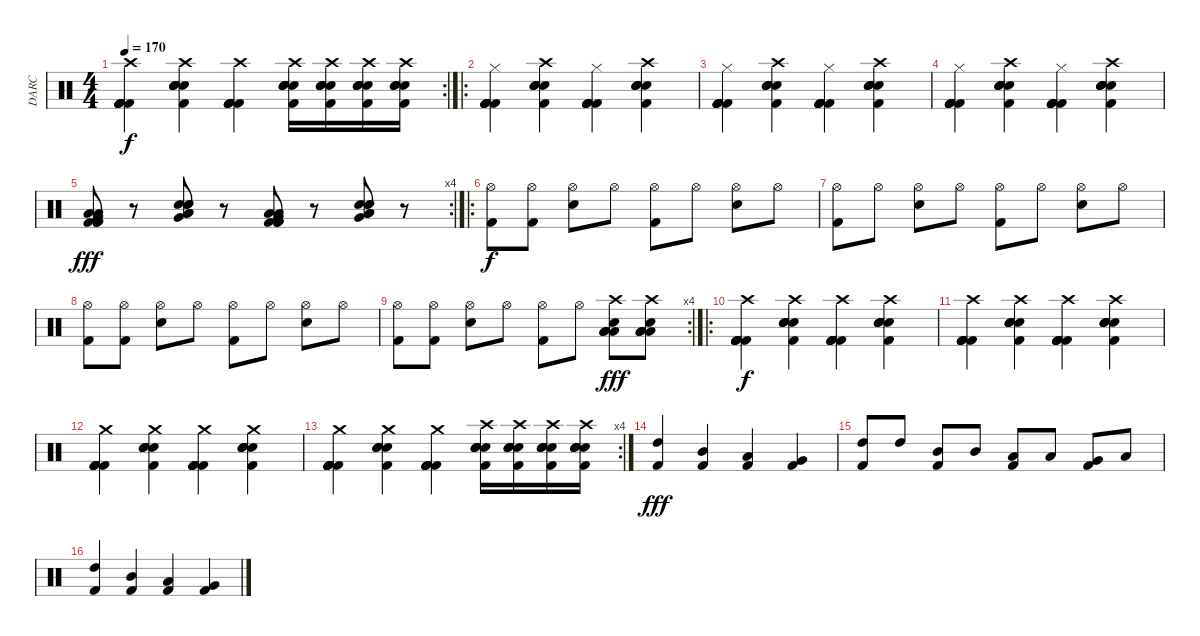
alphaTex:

\track ("DARC" "DARC") {instrument percussion}
\staff {score}
\articulation defaults
\rc 2
\ts (4 4)
\tempo 170
\clef neutral
\ks c
("Crash high (hit)" "Kick (hit) 2" "Kick (hit) 2" "Kick (hit) 2" "Kick (hit) 2" "Kick (hit) 2").4{dy f} ("Crash high (hit)" "Kick (hit) 2" "Electric Snare (hit)" "Electric Snare (hit)" "Electric Snare (hit)" "Electric Snare (hit)").4 ("Crash high (hit)" "Kick (hit) 2" "Kick (hit) 2" "Kick (hit) 2" "Kick (hit) 2" "Kick (hit) 2").4 ("Crash high (hit)" "Kick (hit) 2" "Electric Snare (hit)" "Electric Snare (hit)" "Electric Snare (hit)" "Electric Snare (hit)").16 ("Crash high (hit)" "Kick (hit) 2" "Electric Snare (hit)" "Electric Snare (hit)" "Electric Snare (hit)" "Electric Snare (hit)").16 ("Crash high (hit)" "Kick (hit) 2" "Electric Snare (hit)" "Electric Snare (hit)" "Electric Snare (hit)" "Electric Snare (hit)").16 ("Crash high (hit)" "Kick (hit) 2" "Electric Snare (hit)" "Electric Snare (hit)" "Electric Snare (hit)" "Electric Snare (hit)").16 |
\ro
("Hi-Hat (closed)" "Kick (hit) 2" "Kick (hit) 2" "Kick (hit) 2" "Kick (hit) 2" "Kick (hit) 2").4 ("Crash high (hit)" "Kick (hit) 2" "Electric Snare (hit)" "Electric Snare (hit)" "Electric Snare (hit)" "Electric Snare (hit)").4 ("Hi-Hat (closed)" "Kick (hit) 2" "Kick (hit) 2" "Kick (hit) 2" "Kick (hit) 2" "Kick (hit) 2").4 ("Crash high (hit)" "Kick (hit) 2" "Electric Snare (hit)" "Electric Snare (hit)" "Electric Snare (hit)" "Electric Snare (hit)").4 |
("Hi-Hat (closed)" "Kick (hit) 2" "Kick (hit) 2" "Kick (hit) 2" "Kick (hit) 2" "Kick (hit) 2").4 ("Crash high (hit)" "Kick (hit) 2" "Electric Snare (hit)" "Electric Snare (hit)" "Electric Snare (hit)" "Electric Snare (hit)").4 ("Hi-Hat (closed)" "Kick (hit) 2" "Kick (hit) 2" "Kick (hit) 2" "Kick (hit) 2" "Kick (hit) 2").4 ("Crash high (hit)" "Kick (hit) 2" "Electric Snare (hit)" "Electric Snare (hit)" "Electric Snare (hit)" "Electric Snare (hit)").4 |
("Hi-Hat (closed)" "Kick (hit) 2" "Kick (hit) 2" "Kick (hit) 2" "Kick (hit) 2" "Kick (hit) 2").4 ("Crash high (hit)" "Kick (hit) 2" "Electric Snare (hit)" "Electric Snare (hit)" "Electric Snare (hit)" "Electric Snare (hit)").4 ("Hi-Hat (closed)" "Kick (hit) 2" "Kick (hit) 2" "Kick (hit) 2" "Kick (hit) 2" "Kick (hit) 2").4 ("Crash high (hit)" "Kick (hit) 2" "Electric Snare (hit)" "Electric Snare (hit)" "Electric Snare (hit)" "Electric Snare (hit)").4 |
\rc 4
("Low Floor Tom (hit)" "Low Floor Tom (hit)" "Very Low Tom (hit)" "Kick (hit) 2" "Kick (hit) 2" "Kick (hit) 2").8{dy fff} r.8 ("Low Floor Tom (hit)" "Low Floor Tom (hit)" "Very Low Tom (hit)" "Electric Snare (hit)" "Electric Snare (hit)" "Electric Snare (hit)").8 r.8 ("Low Floor Tom (hit)" "Low Floor Tom (hit)" "Very Low Tom (hit)" "Kick (hit) 2" "Kick (hit) 2" "Kick (hit) 2").8 r.8 ("Low Floor Tom (hit)" "Low Floor Tom (hit)" "Very Low Tom (hit)" "Electric Snare (hit)" "Electric Snare (hit)" "Electric Snare (hit)").8 r.8 |
\ro
("Hi-Hat (open)" "Kick (hit) 2").8{dy f} ("Hi-Hat (open)" "Kick (hit) 2").8 ("Hi-Hat (open)" "Electric Snare (hit)").8 "Hi-Hat (open)".8 ("Hi-Hat (open)" "Kick (hit) 2").8 "Hi-Hat (open)".8 ("Hi-Hat (open)" "Electric Snare (hit)").8 "Hi-Hat (open)".8 |
("Hi-Hat (open)" "Kick (hit) 2").8 "Hi-Hat (open)".8 ("Hi-Hat (open)" "Electric Snare (hit)").8 "Hi-Hat (open)".8 ("Hi-Hat (open)" "Kick (hit) 2").8 "Hi-Hat (open)".8 ("Hi-Hat (open)" "Electric Snare (hit)").8 "Hi-Hat (open)".8 |
("Hi-Hat (open)" "Kick (hit) 2").8 ("Hi-Hat (open)" "Kick (hit) 2").8 ("Hi-Hat (open)" "Electric Snare (hit)").8 "Hi-Hat (open)".8 ("Hi-Hat (open)" "Kick (hit) 2").8 "Hi-Hat (open)".8 ("Hi-Hat (open)" "Electric Snare (hit)").8 "Hi-Hat (open)".8 |
\rc 4
("Hi-Hat (open)" "Kick (hit) 2").8 ("Hi-Hat (open)" "Kick (hit) 2").8 ("Hi-Hat (open)" "Electric Snare (hit)").8 "Hi-Hat (open)".8 ("Hi-Hat (open)" "Kick (hit) 2").8 "Hi-Hat (open)".8 ("Low Floor Tom (hit)" "Low Floor Tom (hit)" "Low Floor Tom (hit)" "Low Floor Tom (hit)" "Crash high (hit)" "Electric Snare (hit)").8{dy fff} ("Low Floor Tom (hit)" "Low Floor Tom (hit)" "Low Floor Tom (hit)" "Low Floor Tom (hit)" "Crash high (hit)" "Electric Snare (hit)").8 |
\ro
("Crash high (hit)" "Kick (hit) 2" "Kick (hit) 2" "Kick (hit) 2" "Kick (hit) 2" "Kick (hit) 2").4{dy f} ("Crash high (hit)" "Kick (hit) 2" "Electric Snare (hit)" "Electric Snare (hit)" "Electric Snare (hit)" "Electric Snare (hit)").4 ("Crash high (hit)" "Kick (hit) 2" "Kick (hit) 2" "Kick (hit) 2" "Kick (hit) 2" "Kick (hit) 2").4 ("Crash high (hit)" "Kick (hit) 2" "Electric Snare (hit)" "Electric Snare (hit)" "Electric Snare (hit)" "Electric Snare (hit)").4 |
("Crash high (hit)" "Kick (hit) 2" "Kick (hit) 2" "Kick (hit) 2" "Kick (hit) 2" "Kick (hit) 2").4 ("Crash high (hit)" "Kick (hit) 2" "Electric Snare (hit)" "Electric Snare (hit)" "Electric Snare (hit)" "Electric Snare (hit)").4 ("Crash high (hit)" "Kick (hit) 2" "Kick (hit) 2" "Kick (hit) 2" "Kick (hit) 2" "Kick (hit) 2").4 ("Crash high (hit)" "Kick (hit) 2" "Electric Snare (hit)" "Electric Snare (hit)" "Electric Snare (hit)" "Electric Snare (hit)").4 |
("Crash medium (hit)" "Kick (hit) 2" "Kick (hit) 2" "Kick (hit) 2" "Kick (hit) 2" "Kick (hit) 2").4 ("Crash medium (hit)" "Kick (hit) 2" "Electric Snare (hit)" "Electric Snare (hit)" "Electric Snare (hit)" "Electric Snare (hit)").4 ("Crash medium (hit)" "Kick (hit) 2" "Kick (hit) 2" "Kick (hit) 2" "Kick (hit) 2" "Kick (hit) 2").4 ("Crash medium (hit)" "Kick (hit) 2" "Electric Snare (hit)" "Electric Snare (hit)" "Electric Snare (hit)" "Electric Snare (hit)").4 |
\rc 4
("Crash medium (hit)" "Kick (hit) 2" "Kick (hit) 2" "Kick (hit) 2" "Kick (hit) 2" "Kick (hit) 2").4 ("Crash medium (hit)" "Kick (hit) 2" "Electric Snare (hit)" "Electric Snare (hit)" "Electric Snare (hit)" "Electric Snare (hit)").4 ("Crash medium (hit)" "Kick (hit) 2" "Kick (hit) 2" "Kick (hit) 2" "Kick (hit) 2" "Kick (hit) 2").4 ("Crash high (hit)" "Kick (hit) 2" "Electric Snare (hit)" "Electric Snare (hit)" "Electric Snare (hit)" "Electric Snare (hit)").16 ("Crash high (hit)" "Kick (hit) 2" "Electric Snare (hit)" "Electric Snare (hit)" "Electric Snare (hit)" "Electric Snare (hit)").16 ("Crash high (hit)" "Kick (hit) 2" "Electric Snare (hit)" "Electric Snare (hit)" "Electric Snare (hit)" "Electric Snare (hit)").16 ("Crash high (hit)" "Kick (hit) 2" "Electric Snare (hit)" "Electric Snare (hit)" "Electric Snare (hit)" "Electric Snare (hit)").16 |
("Kick (hit) 2" "High Tom (hit)").4{dy fff} ("Kick (hit) 2" "Mid Tom (hit)").4 ("Kick (hit) 2" "Low Tom (hit)").4 ("Kick (hit) 2" "Very Low Tom (hit)").4 |
("Kick (hit) 2" "High Tom (hit)").8 "High Tom (hit)".8 ("Kick (hit) 2" "Mid Tom (hit)").8 "Mid Tom (hit)".8 ("Kick (hit) 2" "Low Tom (hit)").8 "Low Tom (hit)".8 ("Kick (hit) 2" "Very Low Tom (hit)").8 "Low Floor Tom (hit)".8 |
("Kick (hit) 2" "High Tom (hit)").4 ("Kick (hit) 2" "Mid Tom (hit)").4 ("Kick (hit) 2" "Low Tom (hit)").4 ("Kick (hit) 2" "Very Low Tom (hit)").4
